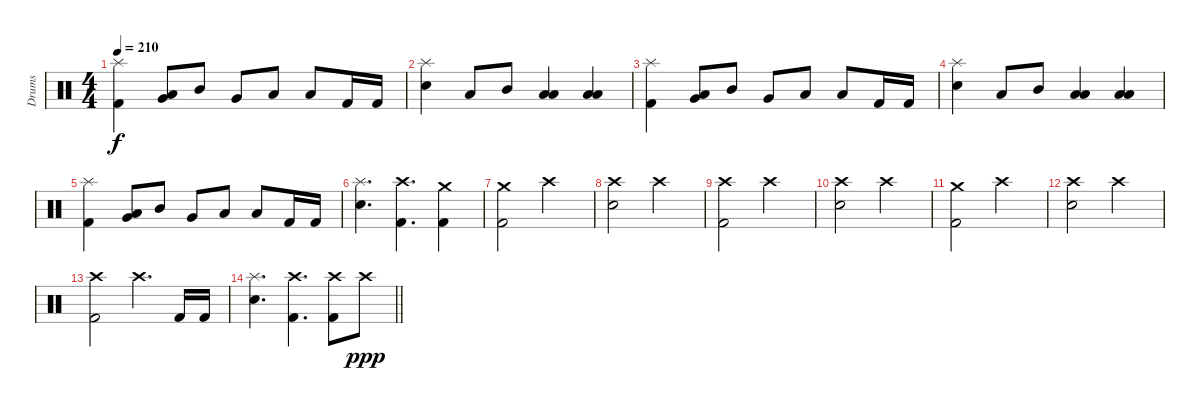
\track ("Drums" "Drums") {instrument percussion}
\staff {score}
\articulation defaults
\ts (4 4)
\tempo 210
\clef neutral
\ks c
("Splash (hit)" "Kick (hit) 2").4{dy f} ("Very Low Tom (hit)" "Low Floor Tom (hit)").8 "Mid Tom (hit)".8 "Very Low Tom (hit)".8 "Low Floor Tom (hit)".8 "Low Floor Tom (hit)".8 "Kick (hit) 2".16 "Kick (hit) 2".16 |
("Splash (hit)" "Electric Snare (hit)").4 "Low Floor Tom (hit)".8 "Mid Tom (hit)".8 ("Low Tom (hit)" "Low Floor Tom (hit)").4 ("Low Tom (hit)" "Low Floor Tom (hit)").4 |
("Splash (hit)" "Kick (hit) 2").4 ("Very Low Tom (hit)" "Low Floor Tom (hit)").8 "Mid Tom (hit)".8 "Very Low Tom (hit)".8 "Low Floor Tom (hit)".8 "Low Floor Tom (hit)".8 "Kick (hit) 2".16 "Kick (hit) 2".16 |
("Splash (hit)" "Electric Snare (hit)").4 "Low Floor Tom (hit)".8 "Mid Tom (hit)".8 ("Low Tom (hit)" "Low Floor Tom (hit)").4 ("Low Tom (hit)" "Low Floor Tom (hit)").4 |
("Splash (hit)" "Kick (hit) 2").4 ("Very Low Tom (hit)" "Low Floor Tom (hit)").8 "Mid Tom (hit)".8 "Very Low Tom (hit)".8 "Low Floor Tom (hit)".8 "Low Floor Tom (hit)".8 "Kick (hit) 2".16 "Kick (hit) 2".16 |
("Electric Snare (hit)" "Splash (hit)").4{d} ("Kick (hit) 2" "Crash high (hit)").4{d} ("Kick (hit) 2" "Crash medium (hit)").4 |
("Crash medium (hit)" "Kick (hit) 2").2 "Crash high (hit)".2 |
("Crash high (hit)" "Electric Snare (hit)").2 "Crash high (hit)".2 |
("Crash high (hit)" "Kick (hit) 2").2 "Crash high (hit)".2 |
("Crash high (hit)" "Electric Snare (hit)").2 "Crash high (hit)".2 |
("Crash medium (hit)" "Kick (hit) 2").2 "Crash high (hit)".2 |
("Crash high (hit)" "Electric Snare (hit)").2 "Crash high (hit)".2 |
("Crash high (hit)" "Kick (hit) 2").2 "Crash high (hit)".4{d} "Kick (hit) 2".16 "Kick (hit) 2".16 |
\barLineRight lightlight
("Electric Snare (hit)" "Splash (hit)").4{d} ("Kick (hit) 2" "Crash high (hit)").4{d} ("Crash high (hit)" "Kick (hit) 2").8 "Crash high (hit)".8{dy ppp}
